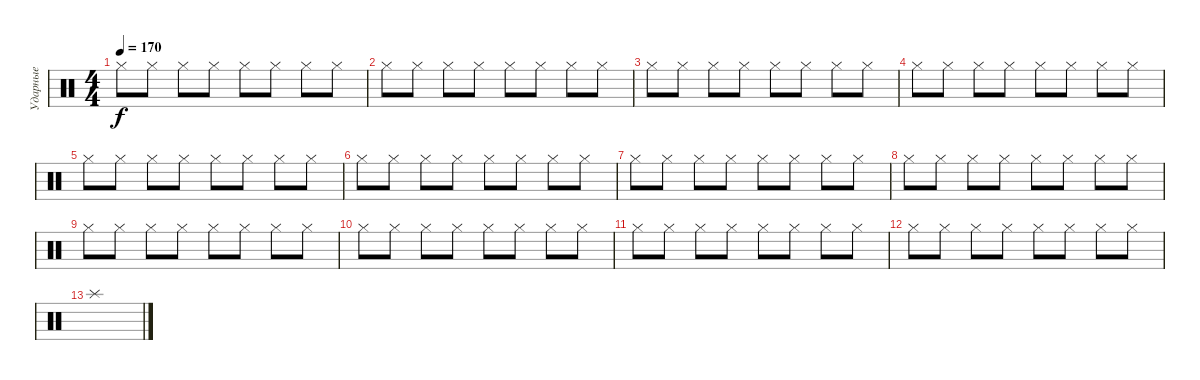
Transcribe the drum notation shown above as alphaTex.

\track ("Ударные" "Ударные") {instrument percussion}
\staff {score}
\articulation defaults
\ts (4 4)
\tempo 170
\clef neutral
\ks c "Hi-Hat (closed)".8{dy f} "Hi-Hat (closed)".8 "Hi-Hat (closed)".8 "Hi-Hat (closed)".8 "Hi-Hat (closed)".8 "Hi-Hat (closed)".8 "Hi-Hat (closed)".8 "Hi-Hat (closed)".8
|
"Hi-Hat (closed)".8 "Hi-Hat (closed)".8 "Hi-Hat (closed)".8 "Hi-Hat (closed)".8 "Hi-Hat (closed)".8 "Hi-Hat (closed)".8 "Hi-Hat (closed)".8 "Hi-Hat (closed)".8 |
"Hi-Hat (closed)".8 "Hi-Hat (closed)".8 "Hi-Hat (closed)".8 "Hi-Hat (closed)".8 "Hi-Hat (closed)".8 "Hi-Hat (closed)".8 "Hi-Hat (closed)".8 "Hi-Hat (closed)".8 |
"Hi-Hat (closed)".8 "Hi-Hat (closed)".8 "Hi-Hat (closed)".8 "Hi-Hat (closed)".8 "Hi-Hat (closed)".8 "Hi-Hat (closed)".8 "Hi-Hat (closed)".8 "Hi-Hat (closed)".8 |
"Hi-Hat (closed)".8 "Hi-Hat (closed)".8 "Hi-Hat (closed)".8 "Hi-Hat (closed)".8 "Hi-Hat (closed)".8 "Hi-Hat (closed)".8 "Hi-Hat (closed)".8 "Hi-Hat (closed)".8 |
"Hi-Hat (closed)".8 "Hi-Hat (closed)".8 "Hi-Hat (closed)".8 "Hi-Hat (closed)".8 "Hi-Hat (closed)".8 "Hi-Hat (closed)".8 "Hi-Hat (closed)".8 "Hi-Hat (closed)".8 |
"Hi-Hat (closed)".8 "Hi-Hat (closed)".8 "Hi-Hat (closed)".8 "Hi-Hat (closed)".8 "Hi-Hat (closed)".8 "Hi-Hat (closed)".8 "Hi-Hat (closed)".8 "Hi-Hat (closed)".8 |
"Hi-Hat (closed)".8 "Hi-Hat (closed)".8 "Hi-Hat (closed)".8 "Hi-Hat (closed)".8 "Hi-Hat (closed)".8 "Hi-Hat (closed)".8 "Hi-Hat (closed)".8 "Hi-Hat (closed)".8 |
"Hi-Hat (closed)".8 "Hi-Hat (closed)".8 "Hi-Hat (closed)".8 "Hi-Hat (closed)".8 "Hi-Hat (closed)".8 "Hi-Hat (closed)".8 "Hi-Hat (closed)".8 "Hi-Hat (closed)".8 |
"Hi-Hat (closed)".8 "Hi-Hat (closed)".8 "Hi-Hat (closed)".8 "Hi-Hat (closed)".8 "Hi-Hat (closed)".8 "Hi-Hat (closed)".8 "Hi-Hat (closed)".8 "Hi-Hat (closed)".8 |
"Hi-Hat (closed)".8 "Hi-Hat (closed)".8 "Hi-Hat (closed)".8 "Hi-Hat (closed)".8 "Hi-Hat (closed)".8 "Hi-Hat (closed)".8 "Hi-Hat (closed)".8 "Hi-Hat (closed)".8 |
"Hi-Hat (closed)".8 "Hi-Hat (closed)".8 "Hi-Hat (closed)".8 "Hi-Hat (closed)".8 "Hi-Hat (closed)".8 "Hi-Hat (closed)".8 "Hi-Hat (closed)".8 "Hi-Hat (closed)".8 |
"Splash (hit)".1
